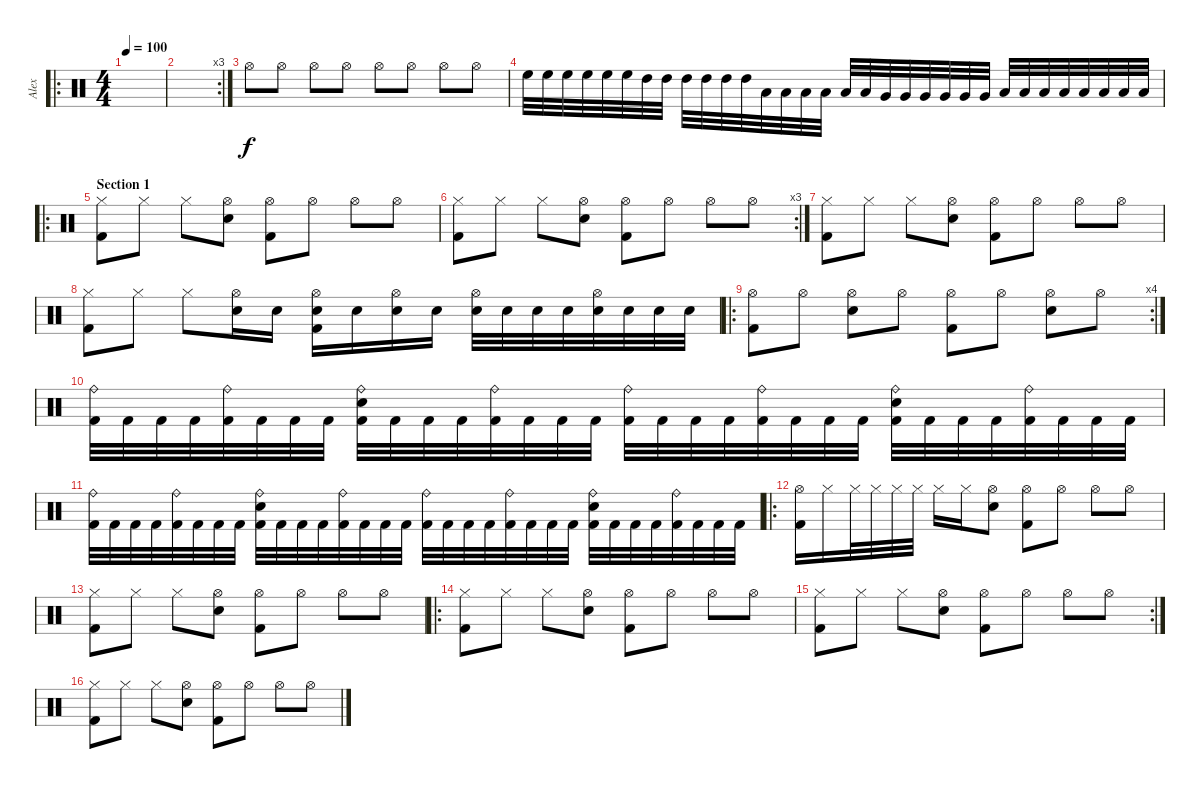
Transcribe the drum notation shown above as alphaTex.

\track ("Alex" "Alex") {instrument percussion}
\staff {score}
\articulation defaults
\ro
\ts (4 4)
\tempo 100
\clef neutral
\ks c
|
\rc 3
|
"Hi-Hat (open)".8 "Hi-Hat (open)".8 "Hi-Hat (open)".8 "Hi-Hat (open)".8 "Hi-Hat (open)".8 "Hi-Hat (open)".8 "Hi-Hat (open)".8 "Hi-Hat (open)".8 |
"High Floor Tom (hit)".32 "High Floor Tom (hit)".32 "High Floor Tom (hit)".32 "High Floor Tom (hit)".32 "High Floor Tom (hit)".32 "High Floor Tom (hit)".32 "High Tom (hit)".32 "High Tom (hit)".32 "High Tom (hit)".32 "High Tom (hit)".32 "High Tom (hit)".32 "High Tom (hit)".32 "Low Tom (hit)".32 "Low Tom (hit)".32 "Low Tom (hit)".32 "Low Tom (hit)".32 "Low Tom (hit)".32 "Low Tom (hit)".32 "Very Low Tom (hit)".32 "Very Low Tom (hit)".32 "Very Low Tom (hit)".32 "Very Low Tom (hit)".32 "Very Low Tom (hit)".32 "Very Low Tom (hit)".32 "Low Floor Tom (hit)".32 "Low Floor Tom (hit)".32 "Low Floor Tom (hit)".32 "Low Floor Tom (hit)".32 "Low Floor Tom (hit)".32 "Low Floor Tom (hit)".32 "Low Floor Tom (hit)".32 "Low Floor Tom (hit)".32 |
\ro
\section ("" "Section 1")
("Hi-Hat (closed)" "Kick (hit) 2").8 "Hi-Hat (closed)".8 "Hi-Hat (closed)".8 ("Electric Snare (hit)" "Hi-Hat (open)").8 ("Hi-Hat (open)" "Kick (hit) 2").8 "Hi-Hat (open)".8 "Hi-Hat (open)".8 "Hi-Hat (open)".8 |
\rc 3
("Hi-Hat (closed)" "Kick (hit) 2").8 "Hi-Hat (closed)".8 "Hi-Hat (closed)".8 ("Electric Snare (hit)" "Hi-Hat (open)").8 ("Hi-Hat (open)" "Kick (hit) 2").8 "Hi-Hat (open)".8 "Hi-Hat (open)".8 "Hi-Hat (open)".8 |
("Hi-Hat (closed)" "Kick (hit) 2").8 "Hi-Hat (closed)".8 "Hi-Hat (closed)".8 ("Electric Snare (hit)" "Hi-Hat (open)").8 ("Hi-Hat (open)" "Kick (hit) 2").8 "Hi-Hat (open)".8 "Hi-Hat (open)".8 "Hi-Hat (open)".8 |
("Hi-Hat (closed)" "Kick (hit) 2").8 "Hi-Hat (closed)".8 "Hi-Hat (closed)".8 ("Electric Snare (hit)" "Hi-Hat (open)").16 "Electric Snare (hit)".16 ("Electric Snare (hit)" "Hi-Hat (open)" "Kick (hit) 2").16 "Electric Snare (hit)".16 ("Electric Snare (hit)" "Hi-Hat (open)").16 "Electric Snare (hit)".16 ("Electric Snare (hit)" "Hi-Hat (open)").32 "Electric Snare (hit)".32 "Electric Snare (hit)".32 "Electric Snare (hit)".32 ("Electric Snare (hit)" "Hi-Hat (open)").32 "Electric Snare (hit)".32 "Electric Snare (hit)".32 "Electric Snare (hit)".32 |
\ro
\rc 4
("Hi-Hat (open)" "Kick (hit) 2").8 "Hi-Hat (open)".8 ("Electric Snare (hit)" "Hi-Hat (open)").8 "Hi-Hat (open)".8 ("Hi-Hat (open)" "Kick (hit) 2").8 "Hi-Hat (open)".8 ("Electric Snare (hit)" "Hi-Hat (open)").8 "Hi-Hat (open)".8 |
("Ride (bell)" "Kick (hit) 2").32 "Kick (hit) 2".32 "Kick (hit) 2".32 "Kick (hit) 2".32 ("Ride (bell)" "Kick (hit) 2").32 "Kick (hit) 2".32 "Kick (hit) 2".32 "Kick (hit) 2".32 ("Electric Snare (hit)" "Ride (bell)" "Kick (hit) 2").32 "Kick (hit) 2".32 "Kick (hit) 2".32 "Kick (hit) 2".32 ("Ride (bell)" "Kick (hit) 2").32 "Kick (hit) 2".32 "Kick (hit) 2".32 "Kick (hit) 2".32 ("Ride (bell)" "Kick (hit) 2").32 "Kick (hit) 2".32 "Kick (hit) 2".32 "Kick (hit) 2".32 ("Ride (bell)" "Kick (hit) 2").32 "Kick (hit) 2".32 "Kick (hit) 2".32 "Kick (hit) 2".32 ("Electric Snare (hit)" "Ride (bell)" "Kick (hit) 2").32 "Kick (hit) 2".32 "Kick (hit) 2".32 "Kick (hit) 2".32 ("Ride (bell)" "Kick (hit) 2").32 "Kick (hit) 2".32 "Kick (hit) 2".32 "Kick (hit) 2".32 |
("Ride (bell)" "Kick (hit) 2").32 "Kick (hit) 2".32 "Kick (hit) 2".32 "Kick (hit) 2".32 ("Ride (bell)" "Kick (hit) 2").32 "Kick (hit) 2".32 "Kick (hit) 2".32 "Kick (hit) 2".32 ("Electric Snare (hit)" "Ride (bell)" "Kick (hit) 2").32 "Kick (hit) 2".32 "Kick (hit) 2".32 "Kick (hit) 2".32 ("Ride (bell)" "Kick (hit) 2").32 "Kick (hit) 2".32 "Kick (hit) 2".32 "Kick (hit) 2".32 ("Ride (bell)" "Kick (hit) 2").32 "Kick (hit) 2".32 "Kick (hit) 2".32 "Kick (hit) 2".32 ("Ride (bell)" "Kick (hit) 2").32 "Kick (hit) 2".32 "Kick (hit) 2".32 "Kick (hit) 2".32 ("Electric Snare (hit)" "Ride (bell)" "Kick (hit) 2").32 "Kick (hit) 2".32 "Kick (hit) 2".32 "Kick (hit) 2".32 ("Ride (bell)" "Kick (hit) 2").32 "Kick (hit) 2".32 "Kick (hit) 2".32 "Kick (hit) 2".32 |
\ro
("Hi-Hat (open)" "Kick (hit) 2").16 "Hi-Hat (closed)".16 "Hi-Hat (closed)".32 "Hi-Hat (closed)".32 "Hi-Hat (closed)".32 "Hi-Hat (closed)".32 "Hi-Hat (closed)".16 "Hi-Hat (closed)".16 ("Electric Snare (hit)" "Hi-Hat (open)").8 ("Hi-Hat (open)" "Kick (hit) 2").8 "Hi-Hat (open)".8 "Hi-Hat (open)".8 "Hi-Hat (open)".8 |
("Hi-Hat (closed)" "Kick (hit) 2").8 "Hi-Hat (closed)".8 "Hi-Hat (closed)".8 ("Electric Snare (hit)" "Hi-Hat (open)").8 ("Hi-Hat (open)" "Kick (hit) 2").8 "Hi-Hat (open)".8 "Hi-Hat (open)".8 "Hi-Hat (open)".8 |
\ro
("Hi-Hat (closed)" "Kick (hit) 2").8 "Hi-Hat (closed)".8 "Hi-Hat (closed)".8 ("Electric Snare (hit)" "Hi-Hat (open)").8 ("Hi-Hat (open)" "Kick (hit) 2").8 "Hi-Hat (open)".8 "Hi-Hat (open)".8 "Hi-Hat (open)".8 |
\rc 2
("Hi-Hat (closed)" "Kick (hit) 2").8 "Hi-Hat (closed)".8 "Hi-Hat (closed)".8 ("Electric Snare (hit)" "Hi-Hat (open)").8 ("Hi-Hat (open)" "Kick (hit) 2").8 "Hi-Hat (open)".8 "Hi-Hat (open)".8 "Hi-Hat (open)".8 |
("Hi-Hat (closed)" "Kick (hit) 2").8 "Hi-Hat (closed)".8 "Hi-Hat (closed)".8 ("Electric Snare (hit)" "Hi-Hat (open)").8 ("Hi-Hat (open)" "Kick (hit) 2").8 "Hi-Hat (open)".8 "Hi-Hat (open)".8 "Hi-Hat (open)".8
